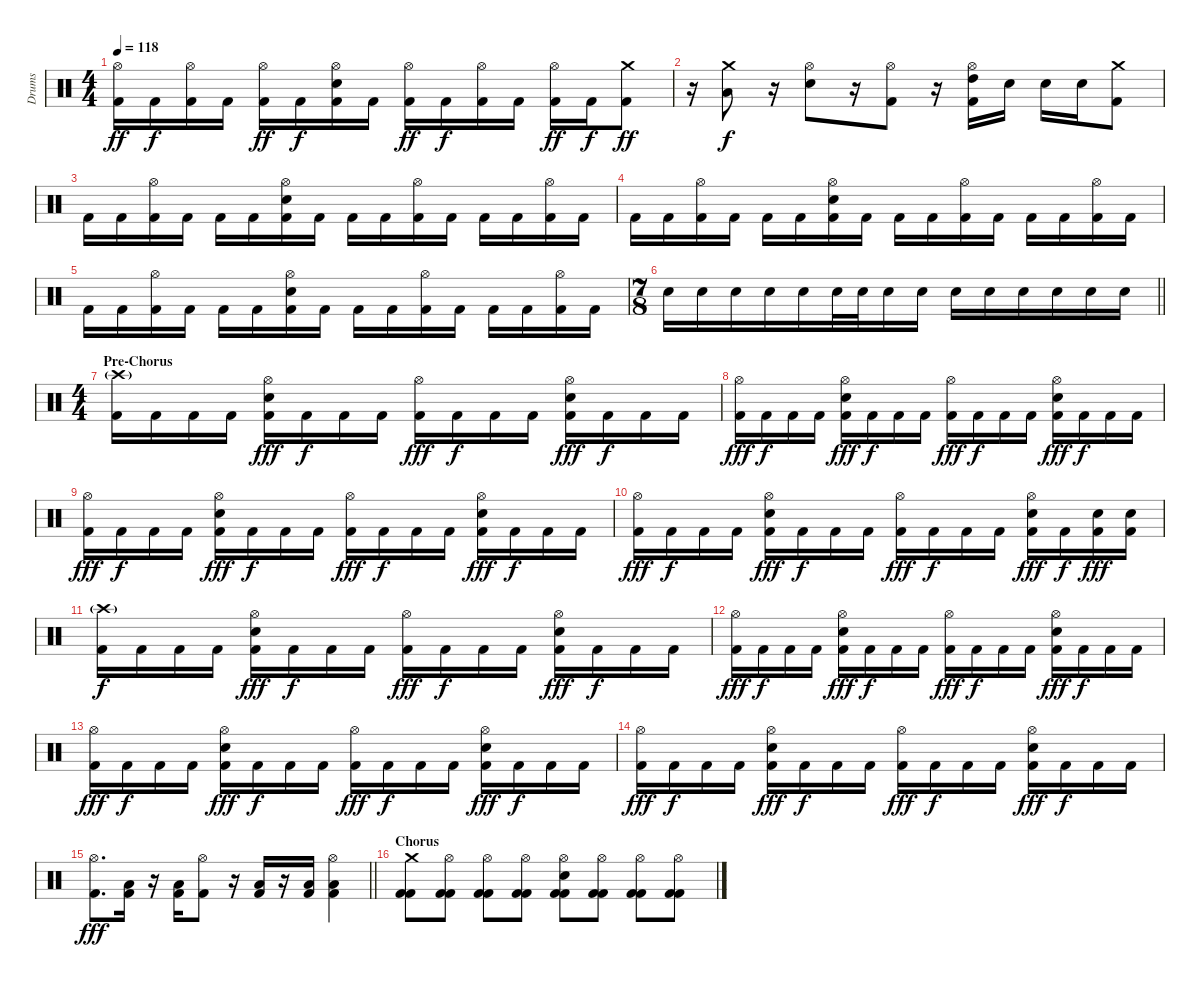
\track ("Drums" "Drums") {instrument percussion}
\staff {score}
\articulation defaults
\ts (4 4)
\tempo 118
\clef neutral
\ks c
("Hi-Hat (open)" "Kick (hit) 2").16{dy ff} "Kick (hit) 2".16{dy f} ("Hi-Hat (open)" "Kick (hit) 2").16 "Kick (hit) 2".16 ("Hi-Hat (open)" "Kick (hit) 2").16{dy ff} "Kick (hit) 2".16{dy f} ("Hi-Hat (open)" "Electric Snare (hit)" "Kick (hit) 2").16 "Kick (hit) 2".16 ("Hi-Hat (open)" "Kick (hit) 2").16{dy ff} "Kick (hit) 2".16{dy f} ("Hi-Hat (open)" "Kick (hit) 2").16 "Kick (hit) 2".16 ("Hi-Hat (open)" "Kick (hit) 2").16{dy ff} "Kick (hit) 2".16{dy f} ("Crash medium (hit)" "Kick (hit) 2").8{dy ff} |
r.16 ("Crash medium (hit)" "Low Tom (hit)").8{dy f} r.16 ("Hi-Hat (open)" "Electric Snare (hit)").8 r.16 ("Hi-Hat (open)" "Kick (hit) 2").8 r.16 ("Hi-Hat (open)" "High Tom (hit)" "Kick (hit) 2").16 "Electric Snare (hit)".16 "Electric Snare (hit)".16 "Electric Snare (hit)".16 ("Crash medium (hit)" "Kick (hit) 2").8 |
"Kick (hit) 2".16 "Kick (hit) 2".16 ("Hi-Hat (open)" "Kick (hit) 2").16 "Kick (hit) 2".16 "Kick (hit) 2".16 "Kick (hit) 2".16 ("Hi-Hat (open)" "Electric Snare (hit)" "Kick (hit) 2").16 "Kick (hit) 2".16 "Kick (hit) 2".16 "Kick (hit) 2".16 ("Hi-Hat (open)" "Kick (hit) 2").16 "Kick (hit) 2".16 "Kick (hit) 2".16 "Kick (hit) 2".16 ("Hi-Hat (open)" "Kick (hit) 2").16 "Kick (hit) 2".16 |
"Kick (hit) 2".16 "Kick (hit) 2".16 ("Hi-Hat (open)" "Kick (hit) 2").16 "Kick (hit) 2".16 "Kick (hit) 2".16 "Kick (hit) 2".16 ("Hi-Hat (open)" "Electric Snare (hit)" "Kick (hit) 2").16 "Kick (hit) 2".16 "Kick (hit) 2".16 "Kick (hit) 2".16 ("Hi-Hat (open)" "Kick (hit) 2").16 "Kick (hit) 2".16 "Kick (hit) 2".16 "Kick (hit) 2".16 ("Hi-Hat (open)" "Kick (hit) 2").16 "Kick (hit) 2".16 |
"Kick (hit) 2".16 "Kick (hit) 2".16 ("Hi-Hat (open)" "Kick (hit) 2").16 "Kick (hit) 2".16 "Kick (hit) 2".16 "Kick (hit) 2".16 ("Hi-Hat (open)" "Electric Snare (hit)" "Kick (hit) 2").16 "Kick (hit) 2".16 "Kick (hit) 2".16 "Kick (hit) 2".16 ("Hi-Hat (open)" "Kick (hit) 2").16 "Kick (hit) 2".16 "Kick (hit) 2".16 "Kick (hit) 2".16 ("Hi-Hat (open)" "Kick (hit) 2").16 "Kick (hit) 2".16 |
\ts (7 8)
\barLineRight lightlight "Electric Snare (hit)".16 "Electric Snare (hit)".16 "Snare (hit) 2".16 "Snare (hit) 2".16 "Snare (hit) 2".16 "Electric Snare (hit)".32 "Electric Snare (hit)".32 "Electric Snare (hit)".16 "Electric Snare (hit)".16 "Electric Snare (hit)".16 "Electric Snare (hit)".16 "Snare (hit) 2".16 "Snare (hit) 2".16 "Electric Snare (hit)".16 "Electric Snare (hit)".16
|
\ts (4 4)
\section ("" "Pre-Chorus")
("Crash high (hit)"{g} "Kick (hit) 2").16 "Kick (hit) 2".16 "Kick (hit) 2".16 "Kick (hit) 2".16 ("Hi-Hat (open)" "Electric Snare (hit)" "Kick (hit) 2").16{dy fff} "Kick (hit) 2".16{dy f} "Kick (hit) 2".16 "Kick (hit) 2".16 ("Hi-Hat (open)" "Kick (hit) 2").16{dy fff} "Kick (hit) 2".16{dy f} "Kick (hit) 2".16 "Kick (hit) 2".16 ("Hi-Hat (open)" "Electric Snare (hit)" "Kick (hit) 2").16{dy fff} "Kick (hit) 2".16{dy f} "Kick (hit) 2".16 "Kick (hit) 2".16 |
("Hi-Hat (open)" "Kick (hit) 2").16{dy fff} "Kick (hit) 2".16{dy f} "Kick (hit) 2".16 "Kick (hit) 2".16 ("Hi-Hat (open)" "Electric Snare (hit)" "Kick (hit) 2").16{dy fff} "Kick (hit) 2".16{dy f} "Kick (hit) 2".16 "Kick (hit) 2".16 ("Hi-Hat (open)" "Kick (hit) 2").16{dy fff} "Kick (hit) 2".16{dy f} "Kick (hit) 2".16 "Kick (hit) 2".16 ("Hi-Hat (open)" "Electric Snare (hit)" "Kick (hit) 2").16{dy fff} "Kick (hit) 2".16{dy f} "Kick (hit) 2".16 "Kick (hit) 2".16 |
("Hi-Hat (open)" "Kick (hit) 2").16{dy fff} "Kick (hit) 2".16{dy f} "Kick (hit) 2".16 "Kick (hit) 2".16 ("Hi-Hat (open)" "Electric Snare (hit)" "Kick (hit) 2").16{dy fff} "Kick (hit) 2".16{dy f} "Kick (hit) 2".16 "Kick (hit) 2".16 ("Hi-Hat (open)" "Kick (hit) 2").16{dy fff} "Kick (hit) 2".16{dy f} "Kick (hit) 2".16 "Kick (hit) 2".16 ("Hi-Hat (open)" "Electric Snare (hit)" "Kick (hit) 2").16{dy fff} "Kick (hit) 2".16{dy f} "Kick (hit) 2".16 "Kick (hit) 2".16 |
("Hi-Hat (open)" "Kick (hit) 2").16{dy fff} "Kick (hit) 2".16{dy f} "Kick (hit) 2".16 "Kick (hit) 2".16 ("Hi-Hat (open)" "Electric Snare (hit)" "Kick (hit) 2").16{dy fff} "Kick (hit) 2".16{dy f} "Kick (hit) 2".16 "Kick (hit) 2".16 ("Hi-Hat (open)" "Kick (hit) 2").16{dy fff} "Kick (hit) 2".16{dy f} "Kick (hit) 2".16 "Kick (hit) 2".16 ("Hi-Hat (open)" "Electric Snare (hit)" "Kick (hit) 2").16{dy fff} "Kick (hit) 2".16{dy f} ("Electric Snare (hit)" "Kick (hit) 2").16{dy fff} ("Electric Snare (hit)" "Kick (hit) 2").16 |
("Crash high (hit)"{g} "Kick (hit) 2").16{dy f} "Kick (hit) 2".16 "Kick (hit) 2".16 "Kick (hit) 2".16 ("Hi-Hat (open)" "Electric Snare (hit)" "Kick (hit) 2").16{dy fff} "Kick (hit) 2".16{dy f} "Kick (hit) 2".16 "Kick (hit) 2".16 ("Hi-Hat (open)" "Kick (hit) 2").16{dy fff} "Kick (hit) 2".16{dy f} "Kick (hit) 2".16 "Kick (hit) 2".16 ("Hi-Hat (open)" "Electric Snare (hit)" "Kick (hit) 2").16{dy fff} "Kick (hit) 2".16{dy f} "Kick (hit) 2".16 "Kick (hit) 2".16 |
("Hi-Hat (open)" "Kick (hit) 2").16{dy fff} "Kick (hit) 2".16{dy f} "Kick (hit) 2".16 "Kick (hit) 2".16 ("Hi-Hat (open)" "Electric Snare (hit)" "Kick (hit) 2").16{dy fff} "Kick (hit) 2".16{dy f} "Kick (hit) 2".16 "Kick (hit) 2".16 ("Hi-Hat (open)" "Kick (hit) 2").16{dy fff} "Kick (hit) 2".16{dy f} "Kick (hit) 2".16 "Kick (hit) 2".16 ("Hi-Hat (open)" "Electric Snare (hit)" "Kick (hit) 2").16{dy fff} "Kick (hit) 2".16{dy f} "Kick (hit) 2".16 "Kick (hit) 2".16 |
("Hi-Hat (open)" "Kick (hit) 2").16{dy fff} "Kick (hit) 2".16{dy f} "Kick (hit) 2".16 "Kick (hit) 2".16 ("Hi-Hat (open)" "Electric Snare (hit)" "Kick (hit) 2").16{dy fff} "Kick (hit) 2".16{dy f} "Kick (hit) 2".16 "Kick (hit) 2".16 ("Hi-Hat (open)" "Kick (hit) 2").16{dy fff} "Kick (hit) 2".16{dy f} "Kick (hit) 2".16 "Kick (hit) 2".16 ("Hi-Hat (open)" "Electric Snare (hit)" "Kick (hit) 2").16{dy fff} "Kick (hit) 2".16{dy f} "Kick (hit) 2".16 "Kick (hit) 2".16 |
("Hi-Hat (open)" "Kick (hit) 2").16{dy fff} "Kick (hit) 2".16{dy f} "Kick (hit) 2".16 "Kick (hit) 2".16 ("Hi-Hat (open)" "Electric Snare (hit)" "Kick (hit) 2").16{dy fff} "Kick (hit) 2".16{dy f} "Kick (hit) 2".16 "Kick (hit) 2".16 ("Hi-Hat (open)" "Kick (hit) 2").16{dy fff} "Kick (hit) 2".16{dy f} "Kick (hit) 2".16 "Kick (hit) 2".16 ("Hi-Hat (open)" "Electric Snare (hit)" "Kick (hit) 2").16{dy fff} "Kick (hit) 2".16{dy f} "Kick (hit) 2".16 "Kick (hit) 2".16 |
\barLineRight lightlight
("Hi-Hat (open)" "Kick (hit) 2").8{d dy fff} ("Low Tom (hit)" "Kick (hit) 2").16 r.16 ("Low Tom (hit)" "Kick (hit) 2").16 ("Hi-Hat (open)" "Kick (hit) 2").8 r.16 ("Low Tom (hit)" "Kick (hit) 2").16 r.16 ("Low Tom (hit)" "Kick (hit) 2").16 ("Hi-Hat (open)" "Low Floor Tom (hit)" "Kick (hit) 2").4 |
\section ("" "Chorus")
("Crash medium (hit)" "Kick (hit) 2" "Kick (hit) 2").8 ("Hi-Hat (open)" "Kick (hit) 2" "Kick (hit) 2").8 ("Hi-Hat (open)" "Kick (hit) 2" "Kick (hit) 2").8 ("Hi-Hat (open)" "Kick (hit) 2" "Kick (hit) 2").8 ("Hi-Hat (open)" "Electric Snare (hit)" "Kick (hit) 2" "Kick (hit) 2").8 ("Hi-Hat (open)" "Kick (hit) 2" "Kick (hit) 2").8 ("Hi-Hat (open)" "Kick (hit) 2" "Kick (hit) 2").8 ("Hi-Hat (open)" "Kick (hit) 2" "Kick (hit) 2").8
